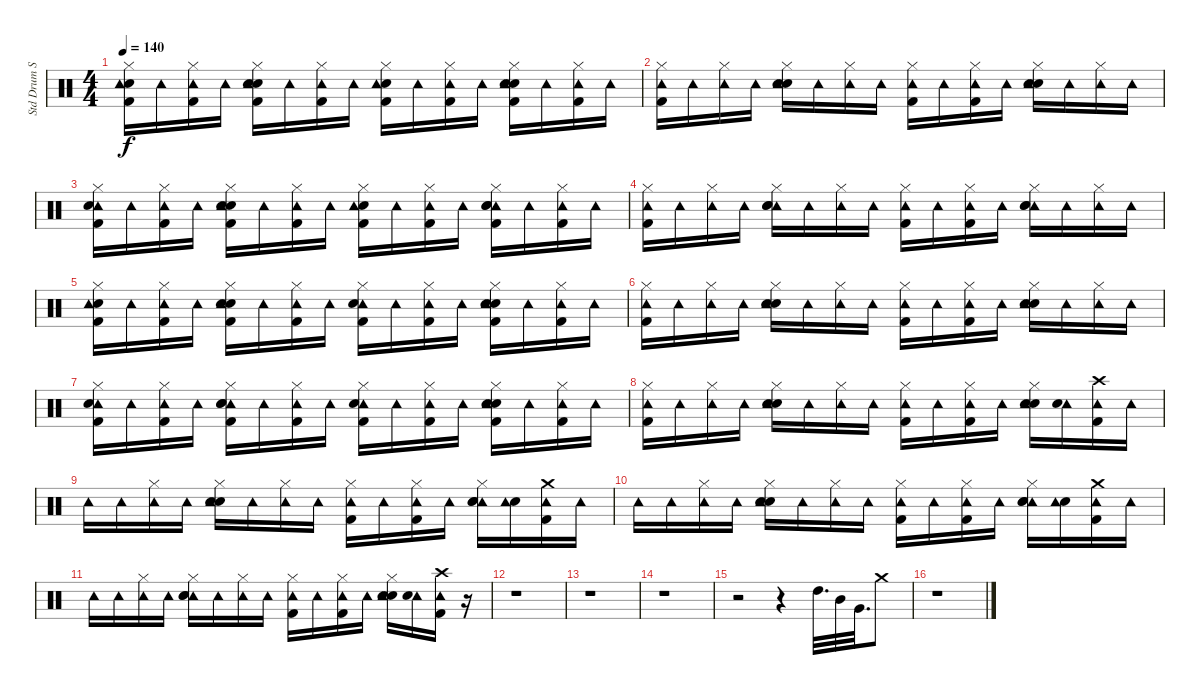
\track ("Std Drum Set" "Std Drum S") {instrument percussion}
\staff {score}
\articulation defaults
\ts (4 4)
\tempo 140
\clef neutral
\ks c
("Snare (hit) 2" "Kick (hit) 2" "Tambourine (hit)" "Hi-Hat (closed)").16{dy f} "Tambourine (hit)".16 ("Kick (hit) 2" "Tambourine (hit)" "Hi-Hat (closed)").16 "Tambourine (hit)".16 ("Hand Clap (hit)" "Kick (hit) 2" "Hi-Hat (closed)" "Snare (hit) 2" "Tambourine (hit)").16 "Tambourine (hit)".16 ("Kick (hit) 2" "Tambourine (hit)" "Hi-Hat (closed)").16 "Tambourine (hit)".16 ("Snare (hit) 2" "Kick (hit) 2" "Tambourine (hit)" "Hi-Hat (closed)").16 "Tambourine (hit)".16 ("Tambourine (hit)" "Hi-Hat (closed)" "Kick (hit) 2").16 "Tambourine (hit)".16 ("Snare (hit) 2" "Hi-Hat (closed)" "Hand Clap (hit)" "Kick (hit) 2" "Tambourine (hit)").16 "Tambourine (hit)".16 ("Hi-Hat (closed)" "Tambourine (hit)" "Kick (hit) 2").16 "Tambourine (hit)".16 |
("Hi-Hat (closed)" "Kick (hit) 2" "Tambourine (hit)").16 "Tambourine (hit)".16 ("Tambourine (hit)" "Hi-Hat (closed)").16 "Tambourine (hit)".16 ("Snare (hit) 2" "Tambourine (hit)" "Hand Clap (hit)" "Hi-Hat (closed)").16 "Tambourine (hit)".16 ("Tambourine (hit)" "Hi-Hat (closed)").16 "Tambourine (hit)".16 ("Tambourine (hit)" "Kick (hit) 2" "Hi-Hat (closed)").16 "Tambourine (hit)".16 ("Kick (hit) 2" "Tambourine (hit)" "Hi-Hat (closed)").16 "Tambourine (hit)".16 ("Hi-Hat (closed)" "Snare (hit) 2" "Hand Clap (hit)" "Tambourine (hit)").16 "Tambourine (hit)".16 ("Hi-Hat (closed)" "Tambourine (hit)").16 "Tambourine (hit)".16 |
("Tambourine (hit)" "Hi-Hat (closed)" "Snare (hit) 2" "Kick (hit) 2").16 "Tambourine (hit)".16 ("Hi-Hat (closed)" "Tambourine (hit)" "Kick (hit) 2").16 "Tambourine (hit)".16 ("Kick (hit) 2" "Hand Clap (hit)" "Hi-Hat (closed)" "Tambourine (hit)" "Snare (hit) 2").16 "Tambourine (hit)".16 ("Tambourine (hit)" "Kick (hit) 2" "Hi-Hat (closed)").16 "Tambourine (hit)".16 ("Kick (hit) 2" "Snare (hit) 2" "Tambourine (hit)" "Hi-Hat (closed)").16 "Tambourine (hit)".16 ("Tambourine (hit)" "Hi-Hat (closed)" "Kick (hit) 2").16 "Tambourine (hit)".16 ("Tambourine (hit)" "Kick (hit) 2" "Hi-Hat (closed)" "Hand Clap (hit)" "Snare (hit) 2").16 "Tambourine (hit)".16 ("Kick (hit) 2" "Hi-Hat (closed)" "Tambourine (hit)").16 "Tambourine (hit)".16 |
("Tambourine (hit)" "Hi-Hat (closed)" "Kick (hit) 2").16 "Tambourine (hit)".16 ("Hi-Hat (closed)" "Tambourine (hit)").16 "Tambourine (hit)".16 ("Tambourine (hit)" "Hi-Hat (closed)" "Snare (hit) 2" "Hand Clap (hit)").16 "Tambourine (hit)".16 ("Tambourine (hit)" "Hi-Hat (closed)").16 "Tambourine (hit)".16 ("Hi-Hat (closed)" "Tambourine (hit)" "Kick (hit) 2").16 "Tambourine (hit)".16 ("Tambourine (hit)" "Kick (hit) 2" "Hi-Hat (closed)").16 "Tambourine (hit)".16 ("Tambourine (hit)" "Hand Clap (hit)" "Snare (hit) 2" "Hi-Hat (closed)").16 "Tambourine (hit)".16 ("Hi-Hat (closed)" "Tambourine (hit)").16 "Tambourine (hit)".16 |
("Snare (hit) 2" "Tambourine (hit)" "Hi-Hat (closed)" "Kick (hit) 2").16 "Tambourine (hit)".16 ("Tambourine (hit)" "Hi-Hat (closed)" "Kick (hit) 2").16 "Tambourine (hit)".16 ("Kick (hit) 2" "Hi-Hat (closed)" "Snare (hit) 2" "Tambourine (hit)" "Hand Clap (hit)").16 "Tambourine (hit)".16 ("Tambourine (hit)" "Hi-Hat (closed)" "Kick (hit) 2").16 "Tambourine (hit)".16 ("Hi-Hat (closed)" "Tambourine (hit)" "Snare (hit) 2" "Kick (hit) 2").16 "Tambourine (hit)".16 ("Tambourine (hit)" "Kick (hit) 2" "Hi-Hat (closed)").16 "Tambourine (hit)".16 ("Hand Clap (hit)" "Hi-Hat (closed)" "Tambourine (hit)" "Kick (hit) 2" "Snare (hit) 2").16 "Tambourine (hit)".16 ("Tambourine (hit)" "Hi-Hat (closed)" "Kick (hit) 2").16 "Tambourine (hit)".16 |
("Hi-Hat (closed)" "Tambourine (hit)" "Kick (hit) 2").16 "Tambourine (hit)".16 ("Tambourine (hit)" "Hi-Hat (closed)").16 "Tambourine (hit)".16 ("Hand Clap (hit)" "Hi-Hat (closed)" "Tambourine (hit)" "Snare (hit) 2").16 "Tambourine (hit)".16 ("Tambourine (hit)" "Hi-Hat (closed)").16 "Tambourine (hit)".16 ("Tambourine (hit)" "Hi-Hat (closed)" "Kick (hit) 2").16 "Tambourine (hit)".16 ("Tambourine (hit)" "Kick (hit) 2" "Hi-Hat (closed)").16 "Tambourine (hit)".16 ("Hi-Hat (closed)" "Snare (hit) 2" "Hand Clap (hit)" "Tambourine (hit)").16 "Tambourine (hit)".16 ("Tambourine (hit)" "Hi-Hat (closed)").16 "Tambourine (hit)".16 |
("Tambourine (hit)" "Hi-Hat (closed)" "Kick (hit) 2" "Snare (hit) 2").16 "Tambourine (hit)".16 ("Kick (hit) 2" "Tambourine (hit)" "Hi-Hat (closed)").16 "Tambourine (hit)".16 ("Tambourine (hit)" "Hi-Hat (closed)" "Snare (hit) 2" "Hand Clap (hit)" "Kick (hit) 2").16 "Tambourine (hit)".16 ("Kick (hit) 2" "Tambourine (hit)" "Hi-Hat (closed)").16 "Tambourine (hit)".16 ("Kick (hit) 2" "Tambourine (hit)" "Hi-Hat (closed)" "Snare (hit) 2").16 "Tambourine (hit)".16 ("Hi-Hat (closed)" "Tambourine (hit)" "Kick (hit) 2").16 "Tambourine (hit)".16 ("Snare (hit) 2" "Hi-Hat (closed)" "Kick (hit) 2" "Hand Clap (hit)" "Tambourine (hit)").16 "Tambourine (hit)".16 ("Hi-Hat (closed)" "Kick (hit) 2" "Tambourine (hit)").16 "Tambourine (hit)".16 |
("Kick (hit) 2" "Hi-Hat (closed)" "Tambourine (hit)").16 "Tambourine (hit)".16 ("Hi-Hat (closed)" "Tambourine (hit)").16 "Tambourine (hit)".16 ("Snare (hit) 2" "Hand Clap (hit)" "Tambourine (hit)" "Hi-Hat (closed)").16 "Tambourine (hit)".16 ("Tambourine (hit)" "Hi-Hat (closed)").16 "Tambourine (hit)".16 ("Hi-Hat (closed)" "Kick (hit) 2" "Tambourine (hit)").16 "Tambourine (hit)".16 ("Tambourine (hit)" "Kick (hit) 2" "Hi-Hat (closed)").16 "Tambourine (hit)".16 ("Hand Clap (hit)" "Hi-Hat (closed)" "Tambourine (hit)" "Snare (hit) 2").16 ("Tambourine (hit)" "Snare (hit) 2").16 ("Kick (hit) 2" "Crash high (hit)" "Tambourine (hit)").16 "Tambourine (hit)".16 |
"Tambourine (hit)".16 "Tambourine (hit)".16 ("Tambourine (hit)" "Hi-Hat (closed)").16 "Tambourine (hit)".16 ("Hi-Hat (closed)" "Snare (hit) 2" "Hand Clap (hit)" "Tambourine (hit)").16 "Tambourine (hit)".16 ("Hi-Hat (closed)" "Tambourine (hit)").16 "Tambourine (hit)".16 ("Tambourine (hit)" "Kick (hit) 2" "Hi-Hat (closed)").16 "Tambourine (hit)".16 ("Hi-Hat (closed)" "Tambourine (hit)" "Kick (hit) 2").16 "Tambourine (hit)".16 ("Tambourine (hit)" "Hand Clap (hit)" "Snare (hit) 2" "Hi-Hat (closed)").16 ("Snare (hit) 2" "Tambourine (hit)").16 ("Tambourine (hit)" "Kick (hit) 2" "Crash medium (hit)").16 "Tambourine (hit)".16 |
"Tambourine (hit)".16 "Tambourine (hit)".16 ("Tambourine (hit)" "Hi-Hat (closed)").16 "Tambourine (hit)".16 ("Hi-Hat (closed)" "Snare (hit) 2" "Hand Clap (hit)" "Tambourine (hit)").16 "Tambourine (hit)".16 ("Hi-Hat (closed)" "Tambourine (hit)").16 "Tambourine (hit)".16 ("Tambourine (hit)" "Kick (hit) 2" "Hi-Hat (closed)").16 "Tambourine (hit)".16 ("Hi-Hat (closed)" "Tambourine (hit)" "Kick (hit) 2").16 "Tambourine (hit)".16 ("Tambourine (hit)" "Hand Clap (hit)" "Snare (hit) 2" "Hi-Hat (closed)").16 ("Snare (hit) 2" "Tambourine (hit)").16 ("Tambourine (hit)" "Kick (hit) 2" "Crash medium (hit)").16 "Tambourine (hit)".16 |
"Tambourine (hit)".16 "Tambourine (hit)".16 ("Hi-Hat (closed)" "Tambourine (hit)").16 "Tambourine (hit)".16 ("Tambourine (hit)" "Snare (hit) 2" "Hi-Hat (closed)" "Hand Clap (hit)").16 "Tambourine (hit)".16 ("Tambourine (hit)" "Hi-Hat (closed)").16 "Tambourine (hit)".16 ("Hi-Hat (closed)" "Kick (hit) 2" "Tambourine (hit)").16 "Tambourine (hit)".16 ("Hi-Hat (closed)" "Tambourine (hit)" "Kick (hit) 2").16 "Tambourine (hit)".16 ("Hand Clap (hit)" "Hi-Hat (closed)" "Tambourine (hit)" "Snare (hit) 2").16 ("Tambourine (hit)" "Snare (hit) 2").16 ("Tambourine (hit)" "Kick (hit) 2" "Crash high (hit)").16 r.16 |
r.1 |
r.1 |
r.1 |
r.2 r.4 "High Tom (hit)".32{d} "Mid Tom (hit)".32 "Very Low Tom (hit)".32{d} "Crash medium (hit)".8 |
r.1
